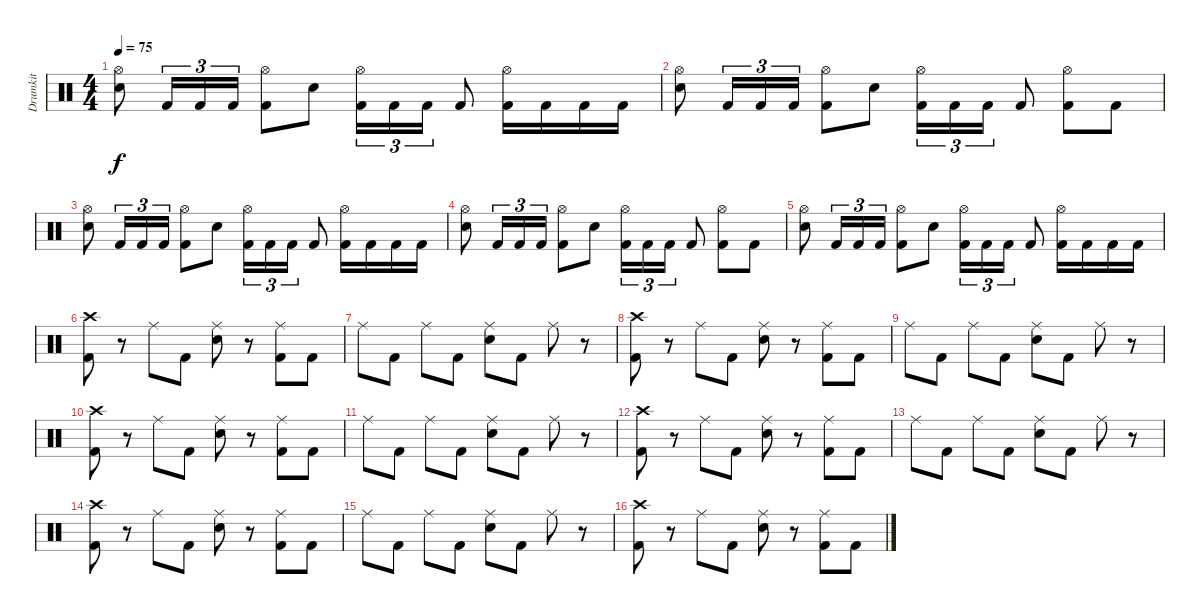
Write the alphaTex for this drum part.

\track ("Drumkit" "Drumkit") {instrument percussion}
\staff {score}
\articulation defaults
\ts (4 4)
\tempo 75
\clef neutral
\ks c
("Hi-Hat (open)" "Snare (hit) 2").8{dy f} "Kick (hit) 2".16{tu (3 2)} "Kick (hit) 2".16{tu (3 2)} "Kick (hit) 2".16{tu (3 2)} ("Hi-Hat (open)" "Kick (hit) 2").8 "Snare (hit) 2".8 ("Hi-Hat (open)" "Kick (hit) 2").16{tu (3 2)} "Kick (hit) 2".16{tu (3 2)} "Kick (hit) 2".16{tu (3 2)} "Kick (hit) 2".8 ("Hi-Hat (open)" "Kick (hit) 2").16 "Kick (hit) 2".16 "Kick (hit) 2".16 "Kick (hit) 2".16 |
("Hi-Hat (open)" "Snare (hit) 2").8 "Kick (hit) 2".16{tu (3 2)} "Kick (hit) 2".16{tu (3 2)} "Kick (hit) 2".16{tu (3 2)} ("Hi-Hat (open)" "Kick (hit) 2").8 "Snare (hit) 2".8 ("Hi-Hat (open)" "Kick (hit) 2").16{tu (3 2)} "Kick (hit) 2".16{tu (3 2)} "Kick (hit) 2".16{tu (3 2)} "Kick (hit) 2".8 ("Hi-Hat (open)" "Kick (hit) 2").8 "Kick (hit) 2".8 |
("Hi-Hat (open)" "Snare (hit) 2").8 "Kick (hit) 2".16{tu (3 2)} "Kick (hit) 2".16{tu (3 2)} "Kick (hit) 2".16{tu (3 2)} ("Hi-Hat (open)" "Kick (hit) 2").8 "Snare (hit) 2".8 ("Hi-Hat (open)" "Kick (hit) 2").16{tu (3 2)} "Kick (hit) 2".16{tu (3 2)} "Kick (hit) 2".16{tu (3 2)} "Kick (hit) 2".8 ("Hi-Hat (open)" "Kick (hit) 2").16 "Kick (hit) 2".16 "Kick (hit) 2".16 "Kick (hit) 2".16 |
("Hi-Hat (open)" "Snare (hit) 2").8 "Kick (hit) 2".16{tu (3 2)} "Kick (hit) 2".16{tu (3 2)} "Kick (hit) 2".16{tu (3 2)} ("Hi-Hat (open)" "Kick (hit) 2").8 "Snare (hit) 2".8 ("Hi-Hat (open)" "Kick (hit) 2").16{tu (3 2)} "Kick (hit) 2".16{tu (3 2)} "Kick (hit) 2".16{tu (3 2)} "Kick (hit) 2".8 ("Hi-Hat (open)" "Kick (hit) 2").8 "Kick (hit) 2".8 |
("Hi-Hat (open)" "Snare (hit) 2").8 "Kick (hit) 2".16{tu (3 2)} "Kick (hit) 2".16{tu (3 2)} "Kick (hit) 2".16{tu (3 2)} ("Hi-Hat (open)" "Kick (hit) 2").8 "Snare (hit) 2".8 ("Hi-Hat (open)" "Kick (hit) 2").16{tu (3 2)} "Kick (hit) 2".16{tu (3 2)} "Kick (hit) 2".16{tu (3 2)} "Kick (hit) 2".8 ("Hi-Hat (open)" "Kick (hit) 2").16 "Kick (hit) 2".16 "Kick (hit) 2".16 "Kick (hit) 2".16 |
("Crash high (hit)" "Kick (hit) 2").8 r.8 "Ride (middle)".8 "Kick (hit) 2".8 ("Ride (middle)" "Snare (hit) 2").8 r.8 ("Ride (middle)" "Kick (hit) 2").8 "Kick (hit) 2".8 |
"Ride (middle)".8 "Kick (hit) 2".8 "Ride (middle)".8 "Kick (hit) 2".8 ("Ride (middle)" "Snare (hit) 2").8 "Kick (hit) 2".8 "Ride (middle)".8 r.8 |
("Crash high (hit)" "Kick (hit) 2").8 r.8 "Ride (middle)".8 "Kick (hit) 2".8 ("Ride (middle)" "Snare (hit) 2").8 r.8 ("Ride (middle)" "Kick (hit) 2").8 "Kick (hit) 2".8 |
"Ride (middle)".8 "Kick (hit) 2".8 "Ride (middle)".8 "Kick (hit) 2".8 ("Ride (middle)" "Snare (hit) 2").8 "Kick (hit) 2".8 "Ride (middle)".8 r.8 |
("Crash high (hit)" "Kick (hit) 2").8 r.8 "Ride (middle)".8 "Kick (hit) 2".8 ("Ride (middle)" "Snare (hit) 2").8 r.8 ("Ride (middle)" "Kick (hit) 2").8 "Kick (hit) 2".8 |
"Ride (middle)".8 "Kick (hit) 2".8 "Ride (middle)".8 "Kick (hit) 2".8 ("Ride (middle)" "Snare (hit) 2").8 "Kick (hit) 2".8 "Ride (middle)".8 r.8 |
("Crash high (hit)" "Kick (hit) 2").8 r.8 "Ride (middle)".8 "Kick (hit) 2".8 ("Ride (middle)" "Snare (hit) 2").8 r.8 ("Ride (middle)" "Kick (hit) 2").8 "Kick (hit) 2".8 |
"Ride (middle)".8 "Kick (hit) 2".8 "Ride (middle)".8 "Kick (hit) 2".8 ("Ride (middle)" "Snare (hit) 2").8 "Kick (hit) 2".8 "Ride (middle)".8 r.8 |
("Crash high (hit)" "Kick (hit) 2").8 r.8 "Ride (middle)".8 "Kick (hit) 2".8 ("Ride (middle)" "Snare (hit) 2").8 r.8 ("Ride (middle)" "Kick (hit) 2").8 "Kick (hit) 2".8 |
"Ride (middle)".8 "Kick (hit) 2".8 "Ride (middle)".8 "Kick (hit) 2".8 ("Ride (middle)" "Snare (hit) 2").8 "Kick (hit) 2".8 "Ride (middle)".8 r.8 |
("Crash high (hit)" "Kick (hit) 2").8 r.8 "Ride (middle)".8 "Kick (hit) 2".8 ("Ride (middle)" "Snare (hit) 2").8 r.8 ("Ride (middle)" "Kick (hit) 2").8 "Kick (hit) 2".8
